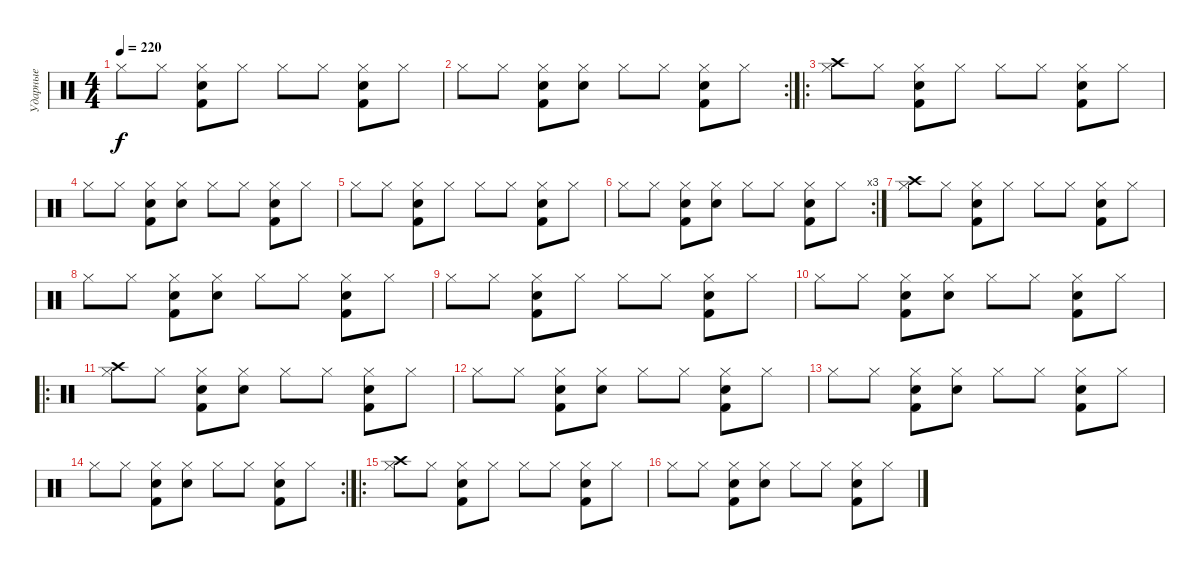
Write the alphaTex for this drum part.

\track ("Ударные" "Ударные") {instrument percussion}
\staff {score}
\articulation defaults
\ts (4 4)
\tempo 220
\clef neutral
\ks c "Hi-Hat (closed)".8{dy f} "Hi-Hat (closed)".8
("Hi-Hat (closed)" "Kick (hit) 2" "Electric Snare (hit)").8 "Hi-Hat (closed)".8 "Hi-Hat (closed)".8 "Hi-Hat (closed)".8 ("Hi-Hat (closed)" "Kick (hit) 2" "Electric Snare (hit)").8 "Hi-Hat (closed)".8 |
\rc 2 "Hi-Hat (closed)".8 "Hi-Hat (closed)".8
("Hi-Hat (closed)" "Kick (hit) 2" "Electric Snare (hit)").8 ("Hi-Hat (closed)" "Electric Snare (hit)").8 "Hi-Hat (closed)".8 "Hi-Hat (closed)".8 ("Hi-Hat (closed)" "Kick (hit) 2" "Electric Snare (hit)").8 "Hi-Hat (closed)".8 |
\ro
("Crash high (hit)" "Hi-Hat (closed)").8 "Hi-Hat (closed)".8 ("Hi-Hat (closed)" "Kick (hit) 2" "Electric Snare (hit)").8 "Hi-Hat (closed)".8 "Hi-Hat (closed)".8 "Hi-Hat (closed)".8 ("Hi-Hat (closed)" "Kick (hit) 2" "Electric Snare (hit)").8 "Hi-Hat (closed)".8 |
"Hi-Hat (closed)".8 "Hi-Hat (closed)".8 ("Hi-Hat (closed)" "Kick (hit) 2" "Electric Snare (hit)").8 ("Hi-Hat (closed)" "Electric Snare (hit)").8 "Hi-Hat (closed)".8 "Hi-Hat (closed)".8 ("Hi-Hat (closed)" "Kick (hit) 2" "Electric Snare (hit)").8 "Hi-Hat (closed)".8 |
"Hi-Hat (closed)".8 "Hi-Hat (closed)".8 ("Hi-Hat (closed)" "Kick (hit) 2" "Electric Snare (hit)").8 "Hi-Hat (closed)".8 "Hi-Hat (closed)".8 "Hi-Hat (closed)".8 ("Hi-Hat (closed)" "Kick (hit) 2" "Electric Snare (hit)").8 "Hi-Hat (closed)".8 |
\rc 3 "Hi-Hat (closed)".8 "Hi-Hat (closed)".8
("Hi-Hat (closed)" "Kick (hit) 2" "Electric Snare (hit)").8 ("Hi-Hat (closed)" "Electric Snare (hit)").8 "Hi-Hat (closed)".8 "Hi-Hat (closed)".8 ("Hi-Hat (closed)" "Kick (hit) 2" "Electric Snare (hit)").8 "Hi-Hat (closed)".8 |
("Crash high (hit)" "Hi-Hat (closed)").8 "Hi-Hat (closed)".8 ("Hi-Hat (closed)" "Kick (hit) 2" "Electric Snare (hit)").8 "Hi-Hat (closed)".8 "Hi-Hat (closed)".8 "Hi-Hat (closed)".8 ("Hi-Hat (closed)" "Kick (hit) 2" "Electric Snare (hit)").8 "Hi-Hat (closed)".8 |
"Hi-Hat (closed)".8 "Hi-Hat (closed)".8 ("Hi-Hat (closed)" "Kick (hit) 2" "Electric Snare (hit)").8 ("Hi-Hat (closed)" "Electric Snare (hit)").8 "Hi-Hat (closed)".8 "Hi-Hat (closed)".8 ("Hi-Hat (closed)" "Kick (hit) 2" "Electric Snare (hit)").8 "Hi-Hat (closed)".8 |
"Hi-Hat (closed)".8 "Hi-Hat (closed)".8 ("Hi-Hat (closed)" "Kick (hit) 2" "Electric Snare (hit)").8 "Hi-Hat (closed)".8 "Hi-Hat (closed)".8 "Hi-Hat (closed)".8 ("Hi-Hat (closed)" "Kick (hit) 2" "Electric Snare (hit)").8 "Hi-Hat (closed)".8 |
"Hi-Hat (closed)".8 "Hi-Hat (closed)".8 ("Hi-Hat (closed)" "Kick (hit) 2" "Electric Snare (hit)").8 ("Hi-Hat (closed)" "Electric Snare (hit)").8 "Hi-Hat (closed)".8 "Hi-Hat (closed)".8 ("Hi-Hat (closed)" "Kick (hit) 2" "Electric Snare (hit)").8 "Hi-Hat (closed)".8 |
\ro
("Crash high (hit)" "Hi-Hat (closed)").8 "Hi-Hat (closed)".8 ("Hi-Hat (closed)" "Kick (hit) 2" "Electric Snare (hit)").8 ("Hi-Hat (closed)" "Electric Snare (hit)").8 "Hi-Hat (closed)".8 "Hi-Hat (closed)".8 ("Hi-Hat (closed)" "Kick (hit) 2" "Electric Snare (hit)").8 "Hi-Hat (closed)".8 |
"Hi-Hat (closed)".8 "Hi-Hat (closed)".8 ("Hi-Hat (closed)" "Kick (hit) 2" "Electric Snare (hit)").8 ("Hi-Hat (closed)" "Electric Snare (hit)").8 "Hi-Hat (closed)".8 "Hi-Hat (closed)".8 ("Hi-Hat (closed)" "Kick (hit) 2" "Electric Snare (hit)").8 "Hi-Hat (closed)".8 |
"Hi-Hat (closed)".8 "Hi-Hat (closed)".8 ("Hi-Hat (closed)" "Kick (hit) 2" "Electric Snare (hit)").8 ("Hi-Hat (closed)" "Electric Snare (hit)").8 "Hi-Hat (closed)".8 "Hi-Hat (closed)".8 ("Hi-Hat (closed)" "Kick (hit) 2" "Electric Snare (hit)").8 "Hi-Hat (closed)".8 |
\rc 2 "Hi-Hat (closed)".8 "Hi-Hat (closed)".8
("Hi-Hat (closed)" "Kick (hit) 2" "Electric Snare (hit)").8 ("Hi-Hat (closed)" "Electric Snare (hit)").8 "Hi-Hat (closed)".8 "Hi-Hat (closed)".8 ("Hi-Hat (closed)" "Kick (hit) 2" "Electric Snare (hit)").8 "Hi-Hat (closed)".8 |
\ro
("Crash high (hit)" "Hi-Hat (closed)").8 "Hi-Hat (closed)".8 ("Hi-Hat (closed)" "Kick (hit) 2" "Electric Snare (hit)").8 "Hi-Hat (closed)".8 "Hi-Hat (closed)".8 "Hi-Hat (closed)".8 ("Hi-Hat (closed)" "Kick (hit) 2" "Electric Snare (hit)").8 "Hi-Hat (closed)".8 |
"Hi-Hat (closed)".8 "Hi-Hat (closed)".8 ("Hi-Hat (closed)" "Kick (hit) 2" "Electric Snare (hit)").8 ("Hi-Hat (closed)" "Electric Snare (hit)").8 "Hi-Hat (closed)".8 "Hi-Hat (closed)".8 ("Hi-Hat (closed)" "Kick (hit) 2" "Electric Snare (hit)").8 "Hi-Hat (closed)".8
